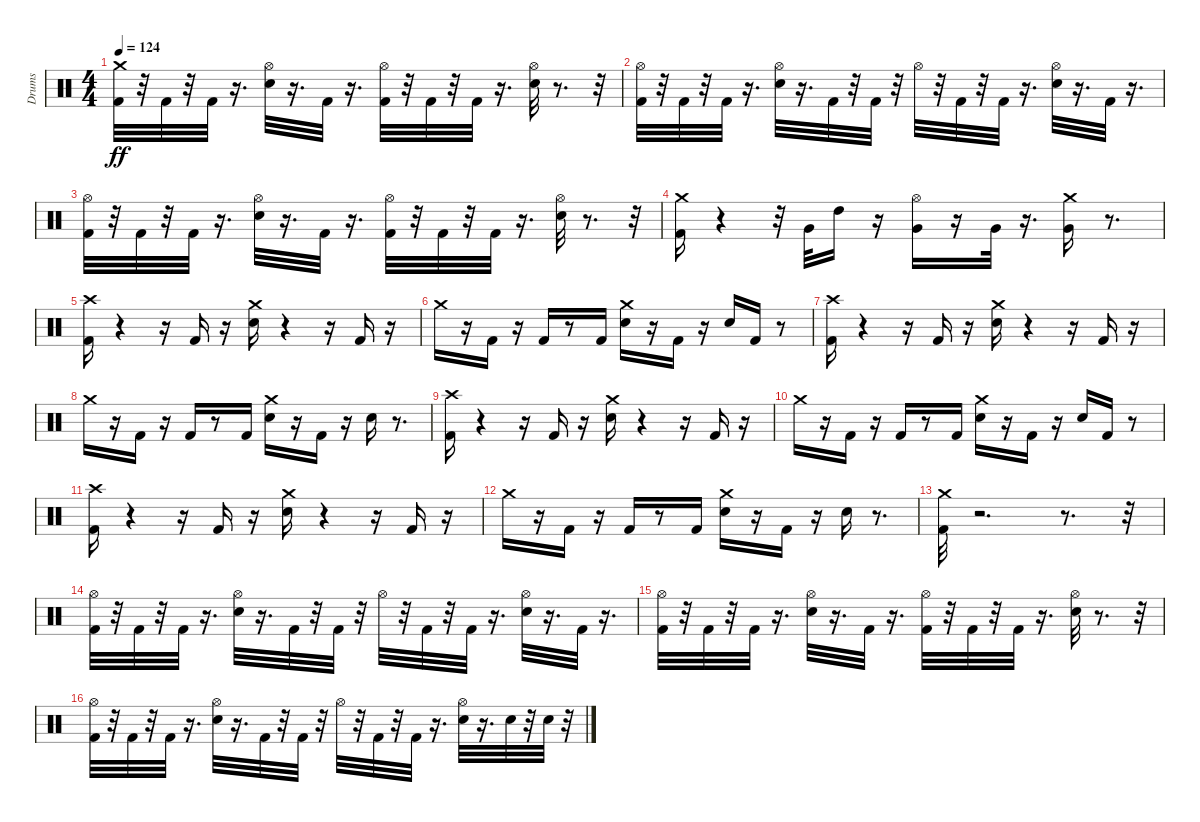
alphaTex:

\track ("Drums" "Drums") {instrument percussion}
\staff {score}
\articulation defaults
\ts (4 4)
\tempo 124
\clef neutral
\ks c
("Kick (hit) 2" "Crash medium (hit)").32{dy ff} r.32 "Kick (hit) 2".32 r.32 "Kick (hit) 2".32 r.16{d} ("Electric Snare (hit)" "Hi-Hat (open)").32 r.16{d} "Kick (hit) 2".32 r.16{d} ("Hi-Hat (open)" "Kick (hit) 2").32 r.32 "Kick (hit) 2".32 r.32 "Kick (hit) 2".32 r.16{d} ("Electric Snare (hit)" "Hi-Hat (open)").32 r.8{d} r.32 |
("Hi-Hat (open)" "Kick (hit) 2").32 r.32 "Kick (hit) 2".32 r.32 "Kick (hit) 2".32 r.16{d} ("Hi-Hat (open)" "Electric Snare (hit)").32 r.16{d} "Kick (hit) 2".32 r.32 "Kick (hit) 2".32 r.32 "Hi-Hat (open)".32 r.32 "Kick (hit) 2".32 r.32 "Kick (hit) 2".32 r.16{d} ("Hi-Hat (open)" "Electric Snare (hit)").32 r.16{d} "Kick (hit) 2".32 r.16{d} |
("Kick (hit) 2" "Hi-Hat (open)").32 r.32 "Kick (hit) 2".32 r.32 "Kick (hit) 2".32 r.16{d} ("Electric Snare (hit)" "Hi-Hat (open)").32 r.16{d} "Kick (hit) 2".32 r.16{d} ("Kick (hit) 2" "Hi-Hat (open)").32 r.32 "Kick (hit) 2".32 r.32 "Kick (hit) 2".32 r.16{d} ("Electric Snare (hit)" "Hi-Hat (open)").32 r.8{d} r.32 |
("Crash medium (hit)" "Kick (hit) 2").16 r.4 r.32 "Very Low Tom (hit)".32 "High Tom (hit)".16 r.16 ("Very Low Tom (hit)" "Hi-Hat (open)").16 r.16 "Very Low Tom (hit)".32 r.16{d} ("Very Low Tom (hit)" "Crash medium (hit)").16 r.8{d} |
("Crash high (hit)" "Kick (hit) 2").16 r.4 r.16 "Kick (hit) 2".16 r.16 ("Crash medium (hit)" "Electric Snare (hit)").16 r.4 r.16 "Kick (hit) 2".16 r.16 |
"Crash medium (hit)".16 r.16 "Kick (hit) 2".16 r.16 "Kick (hit) 2".16 r.8 "Kick (hit) 2".16 ("Crash medium (hit)" "Electric Snare (hit)").16 r.16 "Kick (hit) 2".16 r.16 "Electric Snare (hit)".16 "Kick (hit) 2".16 r.8 |
("Kick (hit) 2" "Crash high (hit)").16 r.4 r.16 "Kick (hit) 2".16 r.16 ("Crash medium (hit)" "Electric Snare (hit)").16 r.4 r.16 "Kick (hit) 2".16 r.16 |
"Crash medium (hit)".16 r.16 "Kick (hit) 2".16 r.16 "Kick (hit) 2".16 r.8 "Kick (hit) 2".16 ("Crash medium (hit)" "Electric Snare (hit)").16 r.16 "Kick (hit) 2".16 r.16 "Electric Snare (hit)".16 r.8{d} |
("Crash high (hit)" "Kick (hit) 2").16 r.4 r.16 "Kick (hit) 2".16 r.16 ("Crash medium (hit)" "Electric Snare (hit)").16 r.4 r.16 "Kick (hit) 2".16 r.16 |
"Crash medium (hit)".16 r.16 "Kick (hit) 2".16 r.16 "Kick (hit) 2".16 r.8 "Kick (hit) 2".16 ("Crash medium (hit)" "Electric Snare (hit)").16 r.16 "Kick (hit) 2".16 r.16 "Electric Snare (hit)".16 "Kick (hit) 2".16 r.8 |
("Crash high (hit)" "Kick (hit) 2").16 r.4 r.16 "Kick (hit) 2".16 r.16 ("Crash medium (hit)" "Electric Snare (hit)").16 r.4 r.16 "Kick (hit) 2".16 r.16 |
"Crash medium (hit)".16 r.16 "Kick (hit) 2".16 r.16 "Kick (hit) 2".16 r.8 "Kick (hit) 2".16 ("Crash medium (hit)" "Electric Snare (hit)").16 r.16 "Kick (hit) 2".16 r.16 "Electric Snare (hit)".16 r.8{d} |
("Crash medium (hit)" "Kick (hit) 2").32 r.2{d} r.8{d} r.32 |
("Kick (hit) 2" "Hi-Hat (open)").32 r.32 "Kick (hit) 2".32 r.32 "Kick (hit) 2".32 r.16{d} ("Electric Snare (hit)" "Hi-Hat (open)").32 r.16{d} "Kick (hit) 2".32 r.32 "Kick (hit) 2".32 r.32 "Hi-Hat (open)".32 r.32 "Kick (hit) 2".32 r.32 "Kick (hit) 2".32 r.16{d} ("Electric Snare (hit)" "Hi-Hat (open)").32 r.16{d} "Kick (hit) 2".32 r.16{d} |
("Hi-Hat (open)" "Kick (hit) 2").32 r.32 "Kick (hit) 2".32 r.32 "Kick (hit) 2".32 r.16{d} ("Hi-Hat (open)" "Electric Snare (hit)").32 r.16{d} "Kick (hit) 2".32 r.16{d} ("Hi-Hat (open)" "Kick (hit) 2").32 r.32 "Kick (hit) 2".32 r.32 "Kick (hit) 2".32 r.16{d} ("Hi-Hat (open)" "Electric Snare (hit)").32 r.8{d} r.32 |
("Kick (hit) 2" "Hi-Hat (open)").32 r.32 "Kick (hit) 2".32 r.32 "Kick (hit) 2".32 r.16{d} ("Electric Snare (hit)" "Hi-Hat (open)").32 r.16{d} "Kick (hit) 2".32 r.32 "Kick (hit) 2".32 r.32 "Hi-Hat (open)".32 r.32 "Kick (hit) 2".32 r.32 "Kick (hit) 2".32 r.16{d} ("Hi-Hat (open)" "Electric Snare (hit)").32 r.16{d} "Electric Snare (hit)".32 r.32 "Electric Snare (hit)".32 r.32
